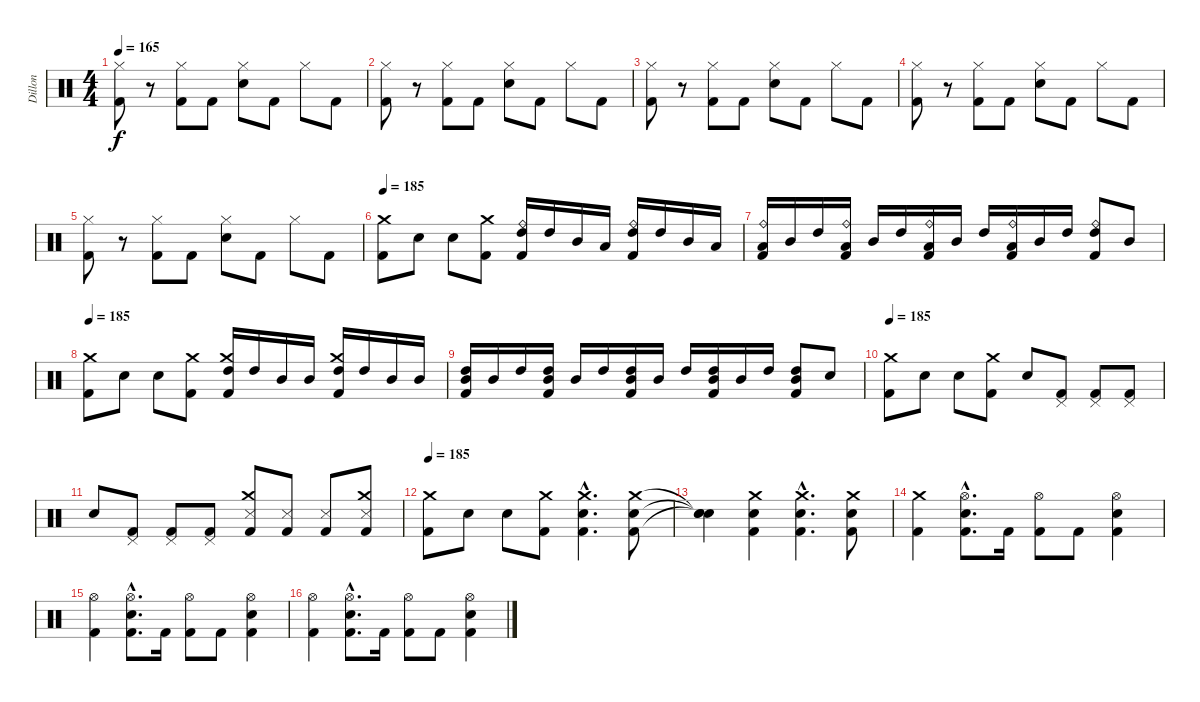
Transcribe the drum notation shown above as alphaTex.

\track ("Dillon" "Dillon") {instrument percussion}
\staff {score}
\articulation defaults
\ts (4 4)
\tempo 165
\clef neutral
\ks c
("Hi-Hat (closed)" "Kick (hit) 2").8{dy f} r.8 ("Hi-Hat (closed)" "Kick (hit) 2").8 "Kick (hit) 2".8 ("Hi-Hat (closed)" "Electric Snare (hit)").8 "Kick (hit) 2".8 "Hi-Hat (closed)".8 "Kick (hit) 2".8 |
("Hi-Hat (closed)" "Kick (hit) 2").8 r.8 ("Hi-Hat (closed)" "Kick (hit) 2").8 "Kick (hit) 2".8 ("Hi-Hat (closed)" "Electric Snare (hit)").8 "Kick (hit) 2".8 "Hi-Hat (closed)".8 "Kick (hit) 2".8 |
("Hi-Hat (closed)" "Kick (hit) 2").8 r.8 ("Hi-Hat (closed)" "Kick (hit) 2").8 "Kick (hit) 2".8 ("Hi-Hat (closed)" "Electric Snare (hit)").8 "Kick (hit) 2".8 "Hi-Hat (closed)".8 "Kick (hit) 2".8 |
("Hi-Hat (closed)" "Kick (hit) 2").8 r.8 ("Hi-Hat (closed)" "Kick (hit) 2").8 "Kick (hit) 2".8 ("Hi-Hat (closed)" "Electric Snare (hit)").8 "Kick (hit) 2".8 "Hi-Hat (closed)".8 "Kick (hit) 2".8 |
("Hi-Hat (closed)" "Kick (hit) 2").8 r.8 ("Hi-Hat (closed)" "Kick (hit) 2").8 "Kick (hit) 2".8 ("Hi-Hat (closed)" "Electric Snare (hit)").8 "Kick (hit) 2".8 "Hi-Hat (closed)".8 "Kick (hit) 2".8 |
\tempo 185
("Crash medium (hit)" "Kick (hit) 2").8 "Electric Snare (hit)".8 "Electric Snare (hit)".8 ("Crash medium (hit)" "Kick (hit) 2").8 ("Ride (bell)" "High Tom (hit)" "Kick (hit) 2").16 "High Tom (hit)".16 "Mid Tom (hit)".16 "Low Tom (hit)".16 ("Ride (bell)" "High Tom (hit)" "Kick (hit) 2").16 "High Tom (hit)".16 "Mid Tom (hit)".16 "Low Tom (hit)".16 |
("Ride (bell)" "Low Tom (hit)" "Kick (hit) 2").16 "Mid Tom (hit)".16 "High Tom (hit)".16 ("Ride (bell)" "Low Tom (hit)" "Kick (hit) 2").16 "Mid Tom (hit)".16 "High Tom (hit)".16 ("Ride (bell)" "Low Tom (hit)" "Kick (hit) 2").16 "Mid Tom (hit)".16 "High Tom (hit)".16 ("Ride (bell)" "Low Tom (hit)" "Kick (hit) 2").16 "Mid Tom (hit)".16 "High Tom (hit)".16 ("Ride (bell)" "High Tom (hit)" "Kick (hit) 2").8 "Mid Tom (hit)".8 |
\tempo 185
("Crash medium (hit)" "Kick (hit) 2").8 "Electric Snare (hit)".8 "Electric Snare (hit)".8 ("Crash medium (hit)" "Kick (hit) 2").8 ("Crash medium (hit)" "High Tom (hit)" "Kick (hit) 2").16 "High Tom (hit)".16 "Mid Tom (hit)".16 "Mid Tom (hit)".16 ("Crash medium (hit)" "High Tom (hit)" "Kick (hit) 2").16 "High Tom (hit)".16 "Mid Tom (hit)".16 "Mid Tom (hit)".16 |
("High Tom (hit)" "Mid Tom (hit)" "Kick (hit) 2").16 "Mid Tom (hit)".16 "High Tom (hit)".16 ("High Tom (hit)" "Mid Tom (hit)" "Kick (hit) 2").16 "Mid Tom (hit)".16 "High Tom (hit)".16 ("High Tom (hit)" "Mid Tom (hit)" "Kick (hit) 2").16 "Mid Tom (hit)".16 "High Tom (hit)".16 ("High Tom (hit)" "Mid Tom (hit)" "Kick (hit) 2").16 "Mid Tom (hit)".16 "High Tom (hit)".16 ("High Tom (hit)" "Mid Tom (hit)" "Kick (hit) 2").8 "Electric Snare (hit)".8 |
\tempo 185
("Crash medium (hit)" "Kick (hit) 2").8 "Electric Snare (hit)".8 "Electric Snare (hit)".8 ("Crash medium (hit)" "Kick (hit) 2").8 "Snare (hit) 2".8 ("Pedal Hi-Hat (hit)" "Kick (hit) 2").8 ("Pedal Hi-Hat (hit)" "Kick (hit) 2").8 ("Pedal Hi-Hat (hit)" "Kick (hit) 2").8 |
"Snare (hit) 2".8 ("Pedal Hi-Hat (hit)" "Kick (hit) 2").8 ("Pedal Hi-Hat (hit)" "Kick (hit) 2").8 ("Pedal Hi-Hat (hit)" "Kick (hit) 2").8 ("Crash medium (hit)" "Snare (side stick) 3" "Kick (hit) 2").8 ("Snare (side stick) 3" "Kick (hit) 2").8 ("Snare (side stick) 3" "Kick (hit) 2").8 ("Crash medium (hit)" "Snare (side stick) 3" "Kick (hit) 2").8 |
\tempo 185
("Crash medium (hit)" "Kick (hit) 2").8 "Electric Snare (hit)".8 "Electric Snare (hit)".8 ("Crash medium (hit)" "Kick (hit) 2").8 ("Crash medium (hit)"{hac} "Electric Snare (hit)"{hac} "Kick (hit) 2"{hac}).4{d} ("Crash medium (hit)" "Electric Snare (hit)" "Kick (hit) 2").8 |
("Snare (hit)"{t} "Snare (hit)"{t} "Snare (hit)"{t}).4 ("Crash medium (hit)" "Electric Snare (hit)" "Kick (hit) 2").4 ("Crash medium (hit)"{hac} "Electric Snare (hit)"{hac} "Kick (hit) 2"{hac}).4{d} ("Crash medium (hit)" "Electric Snare (hit)" "Kick (hit) 2").8 |
("Crash medium (hit)" "Kick (hit) 2").4 ("Hi-Hat (open)"{hac} "Electric Snare (hit)"{hac} "Kick (hit) 2"{hac}).8{d} "Kick (hit) 2".16 ("Hi-Hat (open)" "Kick (hit) 2").8 "Kick (hit) 2".8 ("Hi-Hat (open)" "Electric Snare (hit)" "Kick (hit) 2").4 |
("Hi-Hat (open)" "Kick (hit) 2").4 ("Hi-Hat (open)"{hac} "Electric Snare (hit)"{hac} "Kick (hit) 2"{hac}).8{d} "Kick (hit) 2".16 ("Hi-Hat (open)" "Kick (hit) 2").8 "Kick (hit) 2".8 ("Hi-Hat (open)" "Electric Snare (hit)" "Kick (hit) 2").4 |
("Hi-Hat (open)" "Kick (hit) 2").4 ("Hi-Hat (open)"{hac} "Electric Snare (hit)"{hac} "Kick (hit) 2"{hac}).8{d} "Kick (hit) 2".16 ("Hi-Hat (open)" "Kick (hit) 2").8 "Kick (hit) 2".8 ("Hi-Hat (open)" "Electric Snare (hit)" "Kick (hit) 2").4
